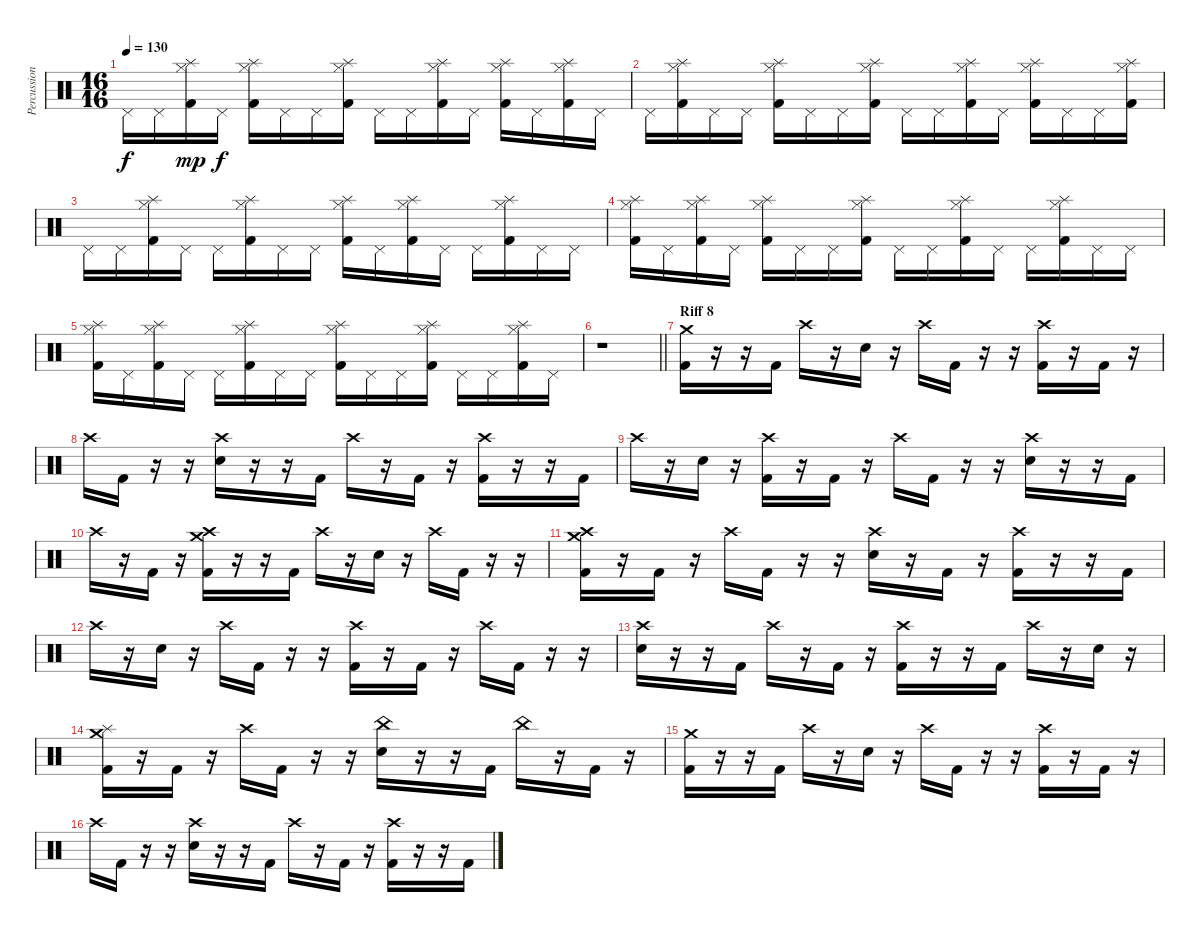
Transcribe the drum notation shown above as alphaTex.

\track ("Percussions" "Percussion") {instrument percussion}
\staff {score}
\articulation defaults
\ts (16 16)
\tempo 130
\clef neutral
\ks c "Pedal Hi-Hat (hit)".16{dy f} "Pedal Hi-Hat (hit)".16
("Splash (hit)" "Hi-Hat (closed)" "Kick (hit) 2").16{dy mp} "Pedal Hi-Hat (hit)".16{dy f} ("Splash (hit)" "Hi-Hat (closed)" "Kick (hit) 2").16 "Pedal Hi-Hat (hit)".16 "Pedal Hi-Hat (hit)".16 ("Splash (hit)" "Hi-Hat (closed)" "Kick (hit) 2").16 "Pedal Hi-Hat (hit)".16 "Pedal Hi-Hat (hit)".16 ("Splash (hit)" "Hi-Hat (closed)" "Kick (hit) 2").16 "Pedal Hi-Hat (hit)".16 ("Splash (hit)" "Hi-Hat (closed)" "Kick (hit) 2").16 "Pedal Hi-Hat (hit)".16 ("Splash (hit)" "Hi-Hat (closed)" "Kick (hit) 2").16 "Pedal Hi-Hat (hit)".16 |
"Pedal Hi-Hat (hit)".16 ("Splash (hit)" "Hi-Hat (closed)" "Kick (hit) 2").16 "Pedal Hi-Hat (hit)".16 "Pedal Hi-Hat (hit)".16 ("Splash (hit)" "Hi-Hat (closed)" "Kick (hit) 2").16 "Pedal Hi-Hat (hit)".16 "Pedal Hi-Hat (hit)".16 ("Splash (hit)" "Hi-Hat (closed)" "Kick (hit) 2").16 "Pedal Hi-Hat (hit)".16 "Pedal Hi-Hat (hit)".16 ("Splash (hit)" "Hi-Hat (closed)" "Kick (hit) 2").16 "Pedal Hi-Hat (hit)".16 ("Splash (hit)" "Hi-Hat (closed)" "Kick (hit) 2").16 "Pedal Hi-Hat (hit)".16 "Pedal Hi-Hat (hit)".16 ("Splash (hit)" "Hi-Hat (closed)" "Kick (hit) 2").16 |
"Pedal Hi-Hat (hit)".16 "Pedal Hi-Hat (hit)".16 ("Splash (hit)" "Hi-Hat (closed)" "Kick (hit) 2").16 "Pedal Hi-Hat (hit)".16 "Pedal Hi-Hat (hit)".16 ("Splash (hit)" "Hi-Hat (closed)" "Kick (hit) 2").16 "Pedal Hi-Hat (hit)".16 "Pedal Hi-Hat (hit)".16 ("Splash (hit)" "Hi-Hat (closed)" "Kick (hit) 2").16 "Pedal Hi-Hat (hit)".16 ("Splash (hit)" "Hi-Hat (closed)" "Kick (hit) 2").16 "Pedal Hi-Hat (hit)".16 "Pedal Hi-Hat (hit)".16 ("Splash (hit)" "Hi-Hat (closed)" "Kick (hit) 2").16 "Pedal Hi-Hat (hit)".16 "Pedal Hi-Hat (hit)".16 |
("Splash (hit)" "Hi-Hat (closed)" "Kick (hit) 2").16 "Pedal Hi-Hat (hit)".16 ("Splash (hit)" "Hi-Hat (closed)" "Kick (hit) 2").16 "Pedal Hi-Hat (hit)".16 ("Splash (hit)" "Hi-Hat (closed)" "Kick (hit) 2").16 "Pedal Hi-Hat (hit)".16 "Pedal Hi-Hat (hit)".16 ("Splash (hit)" "Hi-Hat (closed)" "Kick (hit) 2").16 "Pedal Hi-Hat (hit)".16 "Pedal Hi-Hat (hit)".16 ("Splash (hit)" "Hi-Hat (closed)" "Kick (hit) 2").16 "Pedal Hi-Hat (hit)".16 "Pedal Hi-Hat (hit)".16 ("Splash (hit)" "Hi-Hat (closed)" "Kick (hit) 2").16 "Pedal Hi-Hat (hit)".16 "Pedal Hi-Hat (hit)".16 |
("Splash (hit)" "Hi-Hat (closed)" "Kick (hit) 2").16 "Pedal Hi-Hat (hit)".16 ("Splash (hit)" "Hi-Hat (closed)" "Kick (hit) 2").16 "Pedal Hi-Hat (hit)".16 "Pedal Hi-Hat (hit)".16 ("Splash (hit)" "Hi-Hat (closed)" "Kick (hit) 2").16 "Pedal Hi-Hat (hit)".16 "Pedal Hi-Hat (hit)".16 ("Splash (hit)" "Hi-Hat (closed)" "Kick (hit) 2").16 "Pedal Hi-Hat (hit)".16 "Pedal Hi-Hat (hit)".16 ("Splash (hit)" "Hi-Hat (closed)" "Kick (hit) 2").16 "Pedal Hi-Hat (hit)".16 "Pedal Hi-Hat (hit)".16 ("Splash (hit)" "Hi-Hat (closed)" "Kick (hit) 2").16 "Pedal Hi-Hat (hit)".16 |
\barLineRight lightlight
r.1 |
\section ("" "Riff 8")
("Crash medium (hit)" "Kick (hit) 2").16 r.16 r.16 "Kick (hit) 2".16 "Crash high (hit)".16 r.16 "Electric Snare (hit)".16 r.16 "Crash high (hit)".16 "Kick (hit) 2".16 r.16 r.16 ("Crash high (hit)" "Kick (hit) 2").16 r.16 "Kick (hit) 2".16 r.16 |
"Crash high (hit)".16 "Kick (hit) 2".16 r.16 r.16 ("Crash high (hit)" "Electric Snare (hit)").16 r.16 r.16 "Kick (hit) 2".16 "Crash high (hit)".16 r.16 "Kick (hit) 2".16 r.16 ("Crash high (hit)" "Kick (hit) 2").16 r.16 r.16 "Kick (hit) 2".16 |
"Crash high (hit)".16 r.16 "Electric Snare (hit)".16 r.16 ("Crash high (hit)" "Kick (hit) 2").16 r.16 "Kick (hit) 2".16 r.16 "Crash high (hit)".16 "Kick (hit) 2".16 r.16 r.16 ("Crash high (hit)" "Electric Snare (hit)").16 r.16 r.16 "Kick (hit) 2".16 |
"Crash high (hit)".16 r.16 "Kick (hit) 2".16 r.16 ("Crash high (hit)" "Crash medium (hit)" "Kick (hit) 2").16 r.16 r.16 "Kick (hit) 2".16 "Crash high (hit)".16 r.16 "Electric Snare (hit)".16 r.16 "Crash high (hit)".16 "Kick (hit) 2".16 r.16 r.16 |
("Crash high (hit)" "Crash medium (hit)" "Kick (hit) 2").16 r.16 "Kick (hit) 2".16 r.16 "Crash high (hit)".16 "Kick (hit) 2".16 r.16 r.16 ("Crash high (hit)" "Electric Snare (hit)").16 r.16 "Kick (hit) 2".16 r.16 ("Crash high (hit)" "Kick (hit) 2").16 r.16 r.16 "Kick (hit) 2".16 |
"Crash high (hit)".16 r.16 "Electric Snare (hit)".16 r.16 "Crash high (hit)".16 "Kick (hit) 2".16 r.16 r.16 ("Crash high (hit)" "Kick (hit) 2").16 r.16 "Kick (hit) 2".16 r.16 "Crash high (hit)".16 "Kick (hit) 2".16 r.16 r.16 |
("Crash high (hit)" "Electric Snare (hit)").16 r.16 r.16 "Kick (hit) 2".16 "Crash high (hit)".16 r.16 "Kick (hit) 2".16 r.16 ("Crash high (hit)" "Kick (hit) 2").16 r.16 r.16 "Kick (hit) 2".16 "Crash high (hit)".16 r.16 "Electric Snare (hit)".16 r.16 |
("Crash medium (hit)" "Splash (hit)" "Kick (hit) 2").16 r.16 "Kick (hit) 2".16 r.16 "Crash high (hit)".16 "Kick (hit) 2".16 r.16 r.16 ("China (hit)" "Electric Snare (hit)").16 r.16 r.16 "Kick (hit) 2".16 "China (hit)".16 r.16 "Kick (hit) 2".16 r.16 |
("Crash medium (hit)" "Kick (hit) 2").16 r.16 r.16 "Kick (hit) 2".16 "Crash high (hit)".16 r.16 "Electric Snare (hit)".16 r.16 "Crash high (hit)".16 "Kick (hit) 2".16 r.16 r.16 ("Crash high (hit)" "Kick (hit) 2").16 r.16 "Kick (hit) 2".16 r.16 |
"Crash high (hit)".16 "Kick (hit) 2".16 r.16 r.16 ("Crash high (hit)" "Electric Snare (hit)").16 r.16 r.16 "Kick (hit) 2".16 "Crash high (hit)".16 r.16 "Kick (hit) 2".16 r.16 ("Crash high (hit)" "Kick (hit) 2").16 r.16 r.16 "Kick (hit) 2".16
